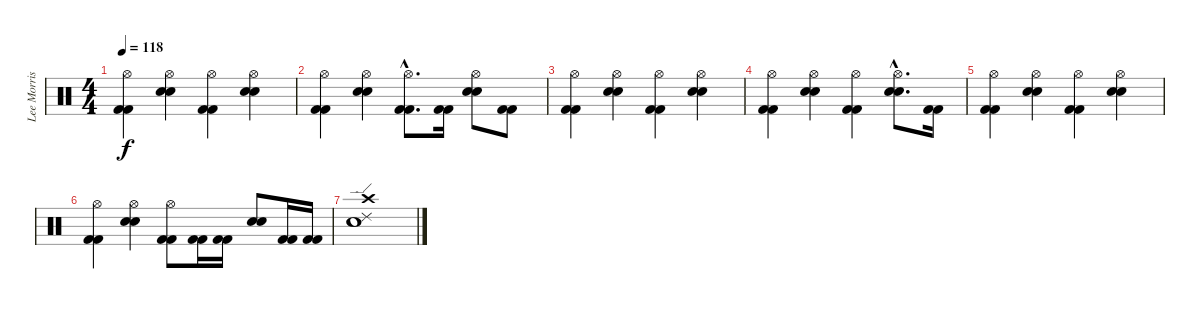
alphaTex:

\track ("Lee Morris" "Lee Morris") {instrument percussion}
\staff {score}
\articulation defaults
\ts (4 4)
\tempo 118
\clef neutral
\ks c
("Hi-Hat (open)" "Kick (hit) 2" "Kick (hit) 2").4{dy f} ("Hi-Hat (open)" "Snare (hit) 2" "Snare (hit) 2").4 ("Hi-Hat (open)" "Kick (hit) 2" "Kick (hit) 2").4 ("Hi-Hat (open)" "Snare (hit) 2" "Snare (hit) 2").4 |
("Hi-Hat (open)" "Kick (hit) 2" "Kick (hit) 2").4 ("Hi-Hat (open)" "Snare (hit) 2" "Snare (hit) 2").4 ("Hi-Hat (open)"{hac} "Kick (hit) 2"{hac} "Kick (hit) 2"{hac}).8{d} ("Kick (hit) 2" "Kick (hit) 2").16 ("Hi-Hat (open)" "Snare (hit) 2" "Snare (hit) 2").8 ("Kick (hit) 2" "Kick (hit) 2").8 |
("Hi-Hat (open)" "Kick (hit) 2" "Kick (hit) 2").4 ("Hi-Hat (open)" "Snare (hit) 2" "Snare (hit) 2").4 ("Hi-Hat (open)" "Kick (hit) 2" "Kick (hit) 2").4 ("Hi-Hat (open)" "Snare (hit) 2" "Snare (hit) 2").4 |
("Hi-Hat (open)" "Kick (hit) 2" "Kick (hit) 2").4 ("Hi-Hat (open)" "Snare (hit) 2" "Snare (hit) 2").4 ("Hi-Hat (open)" "Kick (hit) 2" "Kick (hit) 2").4 ("Hi-Hat (open)"{hac} "Snare (hit) 2"{hac} "Snare (hit) 2"{hac}).8{d} ("Kick (hit) 2" "Kick (hit) 2").16 |
("Hi-Hat (open)" "Kick (hit) 2" "Kick (hit) 2").4 ("Hi-Hat (open)" "Snare (hit) 2" "Snare (hit) 2").4 ("Hi-Hat (open)" "Kick (hit) 2" "Kick (hit) 2").4 ("Hi-Hat (open)" "Snare (hit) 2" "Snare (hit) 2").4 |
("Hi-Hat (open)" "Kick (hit) 2" "Kick (hit) 2").4 ("Hi-Hat (open)" "Snare (hit) 2" "Snare (hit) 2").4 ("Hi-Hat (open)" "Kick (hit) 2" "Kick (hit) 2").8 ("Kick (hit) 2" "Kick (hit) 2").16 ("Kick (hit) 2" "Kick (hit) 2").16 ("Snare (hit) 2" "Snare (hit) 2").8 ("Kick (hit) 2" "Kick (hit) 2").16 ("Kick (hit) 2" "Kick (hit) 2").16 |
("Crash high (hit)" "Ride (edge) 2" "Snare (hit) 2" "Snare (hit) 2").1
